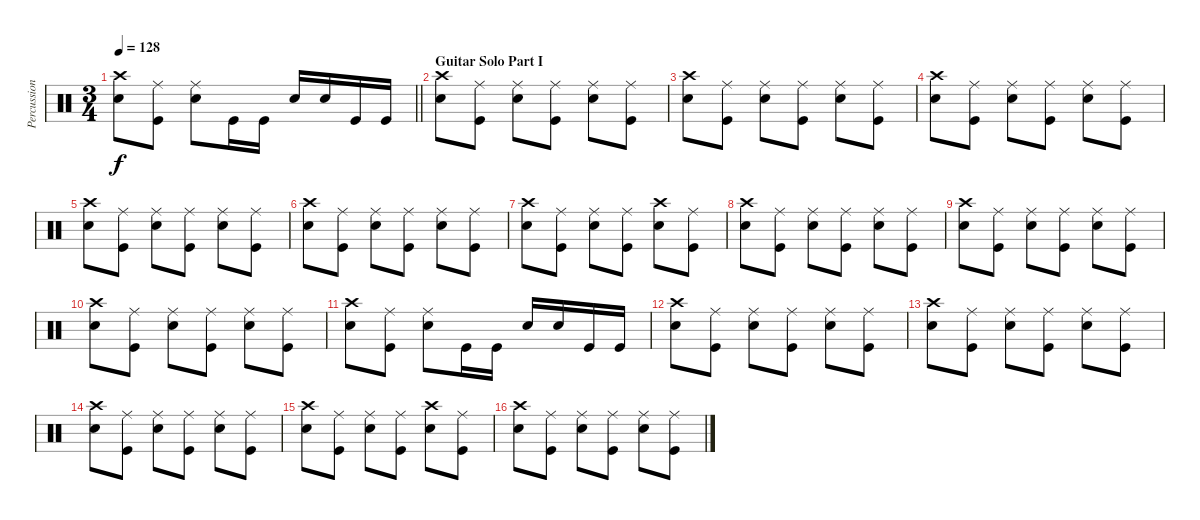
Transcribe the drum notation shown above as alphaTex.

\track ("Percussioni" "Percussion") {instrument percussion}
\staff {score}
\articulation defaults
\ts (3 4)
\tempo 128
\clef neutral
\barLineRight lightlight
\ks c
("Crash high (hit)" "Snare (hit) 2").8{dy f} ("Ride (middle)" "Kick (hit)").8 ("Ride (middle)" "Snare (hit) 2").8 "Kick (hit)".16 "Kick (hit)".16 "Snare (hit) 2".16 "Snare (hit) 2".16 "Kick (hit)".16 "Kick (hit)".16 |
\section ("" "Guitar Solo Part I")
("Crash high (hit)" "Snare (hit) 2").8 ("Ride (middle)" "Kick (hit)").8 ("Ride (middle)" "Snare (hit) 2").8 ("Kick (hit)" "Ride (middle)").8 ("Ride (middle)" "Snare (hit) 2").8 ("Kick (hit)" "Ride (middle)").8 |
("Crash high (hit)" "Snare (hit) 2").8 ("Ride (middle)" "Kick (hit)").8 ("Ride (middle)" "Snare (hit) 2").8 ("Kick (hit)" "Ride (middle)").8 ("Ride (middle)" "Snare (hit) 2").8 ("Kick (hit)" "Ride (middle)").8 |
("Crash high (hit)" "Snare (hit) 2").8 ("Ride (middle)" "Kick (hit)").8 ("Ride (middle)" "Snare (hit) 2").8 ("Kick (hit)" "Ride (middle)").8 ("Ride (middle)" "Snare (hit) 2").8 ("Kick (hit)" "Ride (middle)").8 |
("Crash high (hit)" "Snare (hit) 2").8 ("Ride (middle)" "Kick (hit)").8 ("Ride (middle)" "Snare (hit) 2").8 ("Kick (hit)" "Ride (middle)").8 ("Ride (middle)" "Snare (hit) 2").8 ("Kick (hit)" "Ride (middle)").8 |
("Crash high (hit)" "Snare (hit) 2").8 ("Ride (middle)" "Kick (hit)").8 ("Ride (middle)" "Snare (hit) 2").8 ("Kick (hit)" "Ride (middle)").8 ("Ride (middle)" "Snare (hit) 2").8 ("Kick (hit)" "Ride (middle)").8 |
("Crash high (hit)" "Snare (hit) 2").8 ("Ride (middle)" "Kick (hit)").8 ("Ride (middle)" "Snare (hit) 2").8 ("Kick (hit)" "Ride (middle)").8 ("Crash high (hit)" "Snare (hit) 2").8 ("Kick (hit)" "Ride (middle)").8 |
("Crash high (hit)" "Snare (hit) 2").8 ("Ride (middle)" "Kick (hit)").8 ("Ride (middle)" "Snare (hit) 2").8 ("Kick (hit)" "Ride (middle)").8 ("Ride (middle)" "Snare (hit) 2").8 ("Kick (hit)" "Ride (middle)").8 |
("Crash high (hit)" "Snare (hit) 2").8 ("Ride (middle)" "Kick (hit)").8 ("Ride (middle)" "Snare (hit) 2").8 ("Kick (hit)" "Ride (middle)").8 ("Ride (middle)" "Snare (hit) 2").8 ("Kick (hit)" "Ride (middle)").8 |
("Crash high (hit)" "Snare (hit) 2").8 ("Ride (middle)" "Kick (hit)").8 ("Ride (middle)" "Snare (hit) 2").8 ("Kick (hit)" "Ride (middle)").8 ("Ride (middle)" "Snare (hit) 2").8 ("Kick (hit)" "Ride (middle)").8 |
("Crash high (hit)" "Snare (hit) 2").8 ("Ride (middle)" "Kick (hit)").8 ("Ride (middle)" "Snare (hit) 2").8 "Kick (hit)".16 "Kick (hit)".16 "Snare (hit) 2".16 "Snare (hit) 2".16 "Kick (hit)".16 "Kick (hit)".16 |
("Crash high (hit)" "Snare (hit) 2").8 ("Ride (middle)" "Kick (hit)").8 ("Ride (middle)" "Snare (hit) 2").8 ("Kick (hit)" "Ride (middle)").8 ("Ride (middle)" "Snare (hit) 2").8 ("Kick (hit)" "Ride (middle)").8 |
("Crash high (hit)" "Snare (hit) 2").8 ("Ride (middle)" "Kick (hit)").8 ("Ride (middle)" "Snare (hit) 2").8 ("Kick (hit)" "Ride (middle)").8 ("Ride (middle)" "Snare (hit) 2").8 ("Kick (hit)" "Ride (middle)").8 |
("Crash high (hit)" "Snare (hit) 2").8 ("Ride (middle)" "Kick (hit)").8 ("Ride (middle)" "Snare (hit) 2").8 ("Kick (hit)" "Ride (middle)").8 ("Ride (middle)" "Snare (hit) 2").8 ("Kick (hit)" "Ride (middle)").8 |
("Crash high (hit)" "Snare (hit) 2").8 ("Ride (middle)" "Kick (hit)").8 ("Ride (middle)" "Snare (hit) 2").8 ("Kick (hit)" "Ride (middle)").8 ("Crash high (hit)" "Snare (hit) 2").8 ("Kick (hit)" "Ride (middle)").8 |
("Crash high (hit)" "Snare (hit) 2").8 ("Ride (middle)" "Kick (hit)").8 ("Ride (middle)" "Snare (hit) 2").8 ("Kick (hit)" "Ride (middle)").8 ("Ride (middle)" "Snare (hit) 2").8 ("Kick (hit)" "Ride (middle)").8
